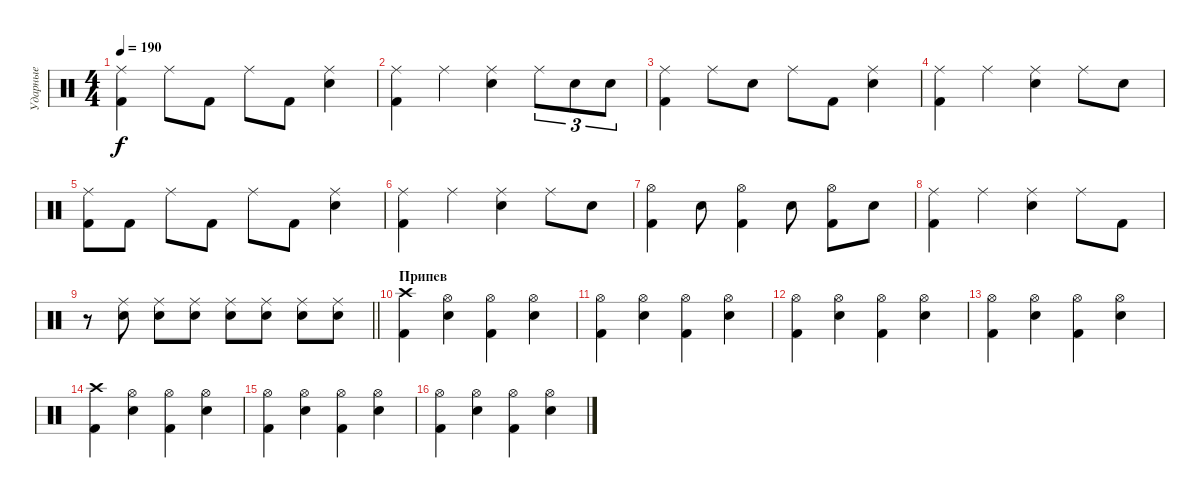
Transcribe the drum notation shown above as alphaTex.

\track ("Ударные" "Ударные") {instrument percussion}
\staff {score}
\articulation defaults
\ts (4 4)
\tempo 190
\clef neutral
\ks c
("Ride (middle)" "Kick (hit) 2").4{dy f} "Ride (middle)".8 "Kick (hit) 2".8 "Ride (middle)".8 "Kick (hit) 2".8 ("Ride (middle)" "Electric Snare (hit)").4 |
("Ride (middle)" "Kick (hit) 2").4 "Ride (middle)".4 ("Ride (middle)" "Electric Snare (hit)").4 "Ride (middle)".8{tu (3 2)} "Electric Snare (hit)".8{tu (3 2)} "Electric Snare (hit)".8{tu (3 2)} |
("Ride (middle)" "Kick (hit) 2").4 "Ride (middle)".8 "Electric Snare (hit)".8 "Ride (middle)".8 "Kick (hit) 2".8 ("Ride (middle)" "Electric Snare (hit)").4 |
("Ride (middle)" "Kick (hit) 2").4 "Ride (middle)".4 ("Ride (middle)" "Electric Snare (hit)").4 "Ride (middle)".8 "Electric Snare (hit)".8 |
("Ride (middle)" "Kick (hit) 2").8 "Kick (hit) 2".8 "Ride (middle)".8 "Kick (hit) 2".8 "Ride (middle)".8 "Kick (hit) 2".8 ("Ride (middle)" "Electric Snare (hit)").4 |
("Ride (middle)" "Kick (hit) 2").4 "Ride (middle)".4 ("Ride (middle)" "Electric Snare (hit)").4 "Ride (middle)".8 "Electric Snare (hit)".8 |
("Hi-Hat (open)" "Kick (hit) 2").4 "Electric Snare (hit)".8 ("Hi-Hat (open)" "Kick (hit) 2").4 "Electric Snare (hit)".8 ("Hi-Hat (open)" "Kick (hit) 2").8 "Electric Snare (hit)".8 |
("Ride (middle)" "Kick (hit) 2").4 "Ride (middle)".4 ("Ride (middle)" "Electric Snare (hit)").4 "Ride (middle)".8 "Kick (hit) 2".8 |
\barLineRight lightlight
r.8 ("Ride (middle)" "Electric Snare (hit)").8 ("Ride (middle)" "Electric Snare (hit)").8 ("Ride (middle)" "Electric Snare (hit)").8 ("Ride (middle)" "Electric Snare (hit)").8 ("Ride (middle)" "Electric Snare (hit)").8 ("Ride (middle)" "Electric Snare (hit)").8 ("Ride (middle)" "Electric Snare (hit)").8 |
\section ("" "Припев")
("Crash high (hit)" "Kick (hit) 2").4 ("Hi-Hat (open)" "Electric Snare (hit)").4 ("Hi-Hat (open)" "Kick (hit) 2").4 ("Hi-Hat (open)" "Electric Snare (hit)").4 |
("Hi-Hat (open)" "Kick (hit) 2").4 ("Hi-Hat (open)" "Electric Snare (hit)").4 ("Hi-Hat (open)" "Kick (hit) 2").4 ("Hi-Hat (open)" "Electric Snare (hit)").4 |
("Hi-Hat (open)" "Kick (hit) 2").4 ("Hi-Hat (open)" "Electric Snare (hit)").4 ("Hi-Hat (open)" "Kick (hit) 2").4 ("Hi-Hat (open)" "Electric Snare (hit)").4 |
("Hi-Hat (open)" "Kick (hit) 2").4 ("Hi-Hat (open)" "Electric Snare (hit)").4 ("Hi-Hat (open)" "Kick (hit) 2").4 ("Hi-Hat (open)" "Electric Snare (hit)").4 |
("Crash high (hit)" "Kick (hit) 2").4 ("Hi-Hat (open)" "Electric Snare (hit)").4 ("Hi-Hat (open)" "Kick (hit) 2").4 ("Hi-Hat (open)" "Electric Snare (hit)").4 |
("Hi-Hat (open)" "Kick (hit) 2").4 ("Hi-Hat (open)" "Electric Snare (hit)").4 ("Hi-Hat (open)" "Kick (hit) 2").4 ("Hi-Hat (open)" "Electric Snare (hit)").4 |
("Hi-Hat (open)" "Kick (hit) 2").4 ("Hi-Hat (open)" "Electric Snare (hit)").4 ("Hi-Hat (open)" "Kick (hit) 2").4 ("Hi-Hat (open)" "Electric Snare (hit)").4
